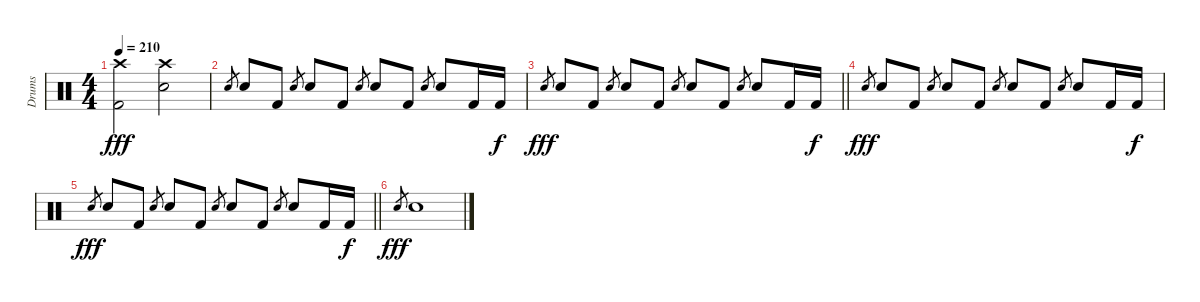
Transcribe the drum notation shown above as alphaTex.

\track ("Drums" "Drums") {instrument percussion}
\staff {score}
\articulation defaults
\ts (4 4)
\tempo 210
\clef neutral
\ks c
("Crash high (hit)" "Kick (hit) 2").2{dy fff} ("Crash high (hit)" "Electric Snare (hit)").2 |
"Electric Snare (hit)".8{gr} "Electric Snare (hit)".8 "Kick (hit) 2".8 "Electric Snare (hit)".8{gr} "Electric Snare (hit)".8 "Kick (hit) 2".8 "Electric Snare (hit)".8{gr} "Electric Snare (hit)".8 "Kick (hit) 2".8 "Electric Snare (hit)".8{gr} "Electric Snare (hit)".8 "Kick (hit) 2".16 "Kick (hit) 2".16{dy f} |
\barLineRight lightlight "Electric Snare (hit)".8{gr dy fff} "Electric Snare (hit)".8 "Kick (hit) 2".8 "Electric Snare (hit)".8{gr} "Electric Snare (hit)".8 "Kick (hit) 2".8 "Electric Snare (hit)".8{gr} "Electric Snare (hit)".8 "Kick (hit) 2".8 "Electric Snare (hit)".8{gr} "Electric Snare (hit)".8 "Kick (hit) 2".16 "Kick (hit) 2".16{dy f}
|
"Electric Snare (hit)".8{gr dy fff} "Electric Snare (hit)".8 "Kick (hit) 2".8 "Electric Snare (hit)".8{gr} "Electric Snare (hit)".8 "Kick (hit) 2".8 "Electric Snare (hit)".8{gr} "Electric Snare (hit)".8 "Kick (hit) 2".8 "Electric Snare (hit)".8{gr} "Electric Snare (hit)".8 "Kick (hit) 2".16 "Kick (hit) 2".16{dy f} |
\barLineRight lightlight "Electric Snare (hit)".8{gr dy fff} "Electric Snare (hit)".8 "Kick (hit) 2".8 "Electric Snare (hit)".8{gr} "Electric Snare (hit)".8 "Kick (hit) 2".8 "Electric Snare (hit)".8{gr} "Electric Snare (hit)".8 "Kick (hit) 2".8 "Electric Snare (hit)".8{gr} "Electric Snare (hit)".8 "Kick (hit) 2".16 "Kick (hit) 2".16{dy f}
|
"Electric Snare (hit)".8{gr dy fff} "Electric Snare (hit)".1
